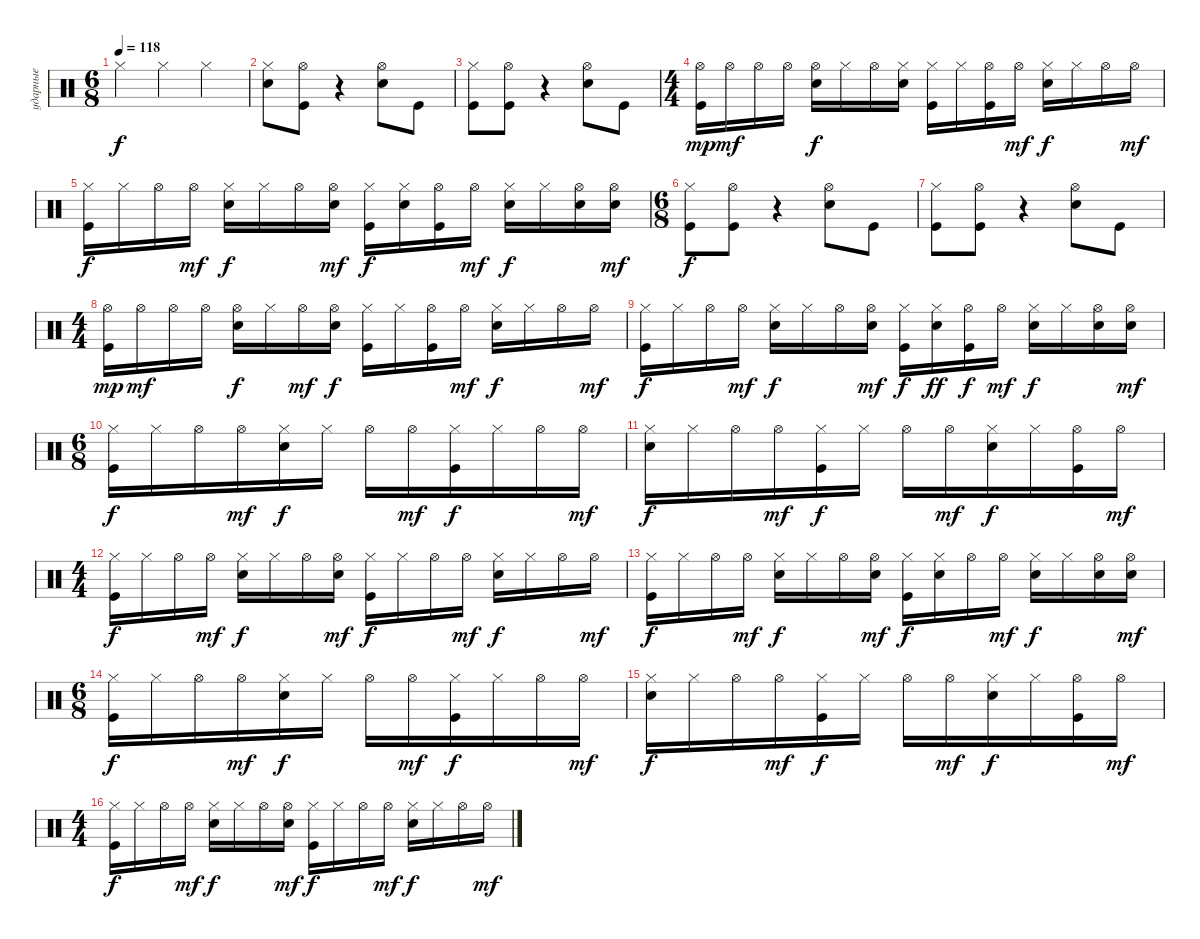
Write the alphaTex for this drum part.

\track ("ударные" "ударные") {instrument percussion}
\staff {score}
\articulation defaults
\ts (6 8)
\tempo 118
\clef neutral
\ks c "Hi-Hat (closed)".4{dy f} "Hi-Hat (closed)".4 "Hi-Hat (closed)".4
|
("Electric Snare (hit)" "Hi-Hat (closed)").8 ("Hi-Hat (open)" "Kick (hit)").8 r.4 ("Hi-Hat (open)" "Electric Snare (hit)").8 "Kick (hit)".8 |
("Hi-Hat (closed)" "Kick (hit)").8 ("Hi-Hat (open)" "Kick (hit)").8 r.4 ("Electric Snare (hit)" "Hi-Hat (open)").8 "Kick (hit)".8 |
\ts (4 4)
("Kick (hit)" "Hi-Hat (open)").16{dy mp} "Hi-Hat (open)".16{dy mf} "Hi-Hat (open)".16 "Hi-Hat (open)".16 ("Electric Snare (hit)" "Hi-Hat (open)").16{dy f} "Hi-Hat (closed)".16 "Hi-Hat (open)".16 ("Electric Snare (hit)" "Hi-Hat (closed)").16 ("Hi-Hat (closed)" "Kick (hit)").16 "Hi-Hat (closed)".16 ("Hi-Hat (open)" "Kick (hit)").16 "Hi-Hat (open)".16{dy mf} ("Electric Snare (hit)" "Hi-Hat (closed)").16{dy f} "Hi-Hat (closed)".16 "Hi-Hat (open)".16 "Hi-Hat (open)".16{dy mf} |
("Hi-Hat (closed)" "Kick (hit)").16{dy f} "Hi-Hat (closed)".16 "Hi-Hat (open)".16 "Hi-Hat (open)".16{dy mf} ("Hi-Hat (closed)" "Electric Snare (hit)").16{dy f} "Hi-Hat (closed)".16 "Hi-Hat (open)".16 ("Electric Snare (hit)" "Hi-Hat (open)").16{dy mf} ("Hi-Hat (closed)" "Kick (hit)").16{dy f} ("Electric Snare (hit)" "Hi-Hat (closed)").16 ("Hi-Hat (open)" "Kick (hit)").16 "Hi-Hat (open)".16{dy mf} ("Electric Snare (hit)" "Hi-Hat (closed)").16{dy f} "Hi-Hat (closed)".16 ("Hi-Hat (open)" "Electric Snare (hit)").16 ("Hi-Hat (open)" "Electric Snare (hit)").16{dy mf} |
\ts (6 8)
("Hi-Hat (closed)" "Kick (hit)").8{dy f} ("Hi-Hat (open)" "Kick (hit)").8 r.4 ("Hi-Hat (open)" "Electric Snare (hit)").8 "Kick (hit)".8 |
("Hi-Hat (closed)" "Kick (hit)").8 ("Hi-Hat (open)" "Kick (hit)").8 r.4 ("Electric Snare (hit)" "Hi-Hat (open)").8 "Kick (hit)".8 |
\ts (4 4)
("Kick (hit)" "Hi-Hat (open)").16{dy mp} "Hi-Hat (open)".16{dy mf} "Hi-Hat (open)".16 "Hi-Hat (open)".16 ("Electric Snare (hit)" "Hi-Hat (open)").16{dy f} "Hi-Hat (closed)".16 "Hi-Hat (open)".16{dy mf} ("Electric Snare (hit)" "Hi-Hat (open)").16{dy f} ("Hi-Hat (closed)" "Kick (hit)").16 "Hi-Hat (closed)".16 ("Hi-Hat (open)" "Kick (hit)").16 "Hi-Hat (open)".16{dy mf} ("Electric Snare (hit)" "Hi-Hat (closed)").16{dy f} "Hi-Hat (closed)".16 "Hi-Hat (open)".16 "Hi-Hat (open)".16{dy mf} |
("Hi-Hat (closed)" "Kick (hit)").16{dy f} "Hi-Hat (closed)".16 "Hi-Hat (open)".16 "Hi-Hat (open)".16{dy mf} ("Hi-Hat (closed)" "Electric Snare (hit)").16{dy f} "Hi-Hat (closed)".16 "Hi-Hat (open)".16 ("Electric Snare (hit)" "Hi-Hat (open)").16{dy mf} ("Hi-Hat (closed)" "Kick (hit)").16{dy f} ("Electric Snare (hit)" "Hi-Hat (closed)").16{dy ff} ("Hi-Hat (open)" "Kick (hit)").16{dy f} "Hi-Hat (open)".16{dy mf} ("Electric Snare (hit)" "Hi-Hat (closed)").16{dy f} "Hi-Hat (closed)".16 ("Hi-Hat (open)" "Electric Snare (hit)").16 ("Hi-Hat (open)" "Electric Snare (hit)").16{dy mf} |
\ts (6 8)
("Hi-Hat (closed)" "Kick (hit)").16{dy f} "Hi-Hat (closed)".16 "Hi-Hat (open)".16 "Hi-Hat (open)".16{dy mf} ("Electric Snare (hit)" "Hi-Hat (closed)").16{dy f} "Hi-Hat (closed)".16 "Hi-Hat (open)".16 "Hi-Hat (open)".16{dy mf} ("Kick (hit)" "Hi-Hat (closed)").16{dy f} "Hi-Hat (closed)".16 "Hi-Hat (open)".16 "Hi-Hat (open)".16{dy mf} |
("Electric Snare (hit)" "Hi-Hat (closed)").16{dy f} "Hi-Hat (closed)".16 "Hi-Hat (open)".16 "Hi-Hat (open)".16{dy mf} ("Kick (hit)" "Hi-Hat (closed)").16{dy f} "Hi-Hat (closed)".16 "Hi-Hat (open)".16 "Hi-Hat (open)".16{dy mf} ("Electric Snare (hit)" "Hi-Hat (closed)").16{dy f} "Hi-Hat (closed)".16 ("Kick (hit)" "Hi-Hat (open)").16 "Hi-Hat (open)".16{dy mf} |
\ts (4 4)
("Kick (hit)" "Hi-Hat (closed)").16{dy f} "Hi-Hat (closed)".16 "Hi-Hat (open)".16 "Hi-Hat (open)".16{dy mf} ("Electric Snare (hit)" "Hi-Hat (closed)").16{dy f} "Hi-Hat (closed)".16 "Hi-Hat (open)".16 ("Hi-Hat (open)" "Electric Snare (hit)").16{dy mf} ("Hi-Hat (closed)" "Kick (hit)").16{dy f} "Hi-Hat (closed)".16 "Hi-Hat (open)".16 "Hi-Hat (open)".16{dy mf} ("Electric Snare (hit)" "Hi-Hat (closed)").16{dy f} "Hi-Hat (closed)".16 "Hi-Hat (open)".16 "Hi-Hat (open)".16{dy mf} |
("Kick (hit)" "Hi-Hat (closed)").16{dy f} "Hi-Hat (closed)".16 "Hi-Hat (open)".16 "Hi-Hat (open)".16{dy mf} ("Electric Snare (hit)" "Hi-Hat (closed)").16{dy f} "Hi-Hat (closed)".16 "Hi-Hat (open)".16 ("Hi-Hat (open)" "Electric Snare (hit)").16{dy mf} ("Hi-Hat (closed)" "Kick (hit)").16{dy f} ("Electric Snare (hit)" "Hi-Hat (closed)").16 "Hi-Hat (open)".16 "Hi-Hat (open)".16{dy mf} ("Electric Snare (hit)" "Hi-Hat (closed)").16{dy f} "Hi-Hat (closed)".16 ("Electric Snare (hit)" "Hi-Hat (open)").16 ("Electric Snare (hit)" "Hi-Hat (open)").16{dy mf} |
\ts (6 8)
("Hi-Hat (closed)" "Kick (hit)").16{dy f} "Hi-Hat (closed)".16 "Hi-Hat (open)".16 "Hi-Hat (open)".16{dy mf} ("Electric Snare (hit)" "Hi-Hat (closed)").16{dy f} "Hi-Hat (closed)".16 "Hi-Hat (open)".16 "Hi-Hat (open)".16{dy mf} ("Kick (hit)" "Hi-Hat (closed)").16{dy f} "Hi-Hat (closed)".16 "Hi-Hat (open)".16 "Hi-Hat (open)".16{dy mf} |
("Electric Snare (hit)" "Hi-Hat (closed)").16{dy f} "Hi-Hat (closed)".16 "Hi-Hat (open)".16 "Hi-Hat (open)".16{dy mf} ("Kick (hit)" "Hi-Hat (closed)").16{dy f} "Hi-Hat (closed)".16 "Hi-Hat (open)".16 "Hi-Hat (open)".16{dy mf} ("Electric Snare (hit)" "Hi-Hat (closed)").16{dy f} "Hi-Hat (closed)".16 ("Kick (hit)" "Hi-Hat (open)").16 "Hi-Hat (open)".16{dy mf} |
\ts (4 4)
("Kick (hit)" "Hi-Hat (closed)").16{dy f} "Hi-Hat (closed)".16 "Hi-Hat (open)".16 "Hi-Hat (open)".16{dy mf} ("Electric Snare (hit)" "Hi-Hat (closed)").16{dy f} "Hi-Hat (closed)".16 "Hi-Hat (open)".16 ("Hi-Hat (open)" "Electric Snare (hit)").16{dy mf} ("Hi-Hat (closed)" "Kick (hit)").16{dy f} "Hi-Hat (closed)".16 "Hi-Hat (open)".16 "Hi-Hat (open)".16{dy mf} ("Electric Snare (hit)" "Hi-Hat (closed)").16{dy f} "Hi-Hat (closed)".16 "Hi-Hat (open)".16 "Hi-Hat (open)".16{dy mf}
